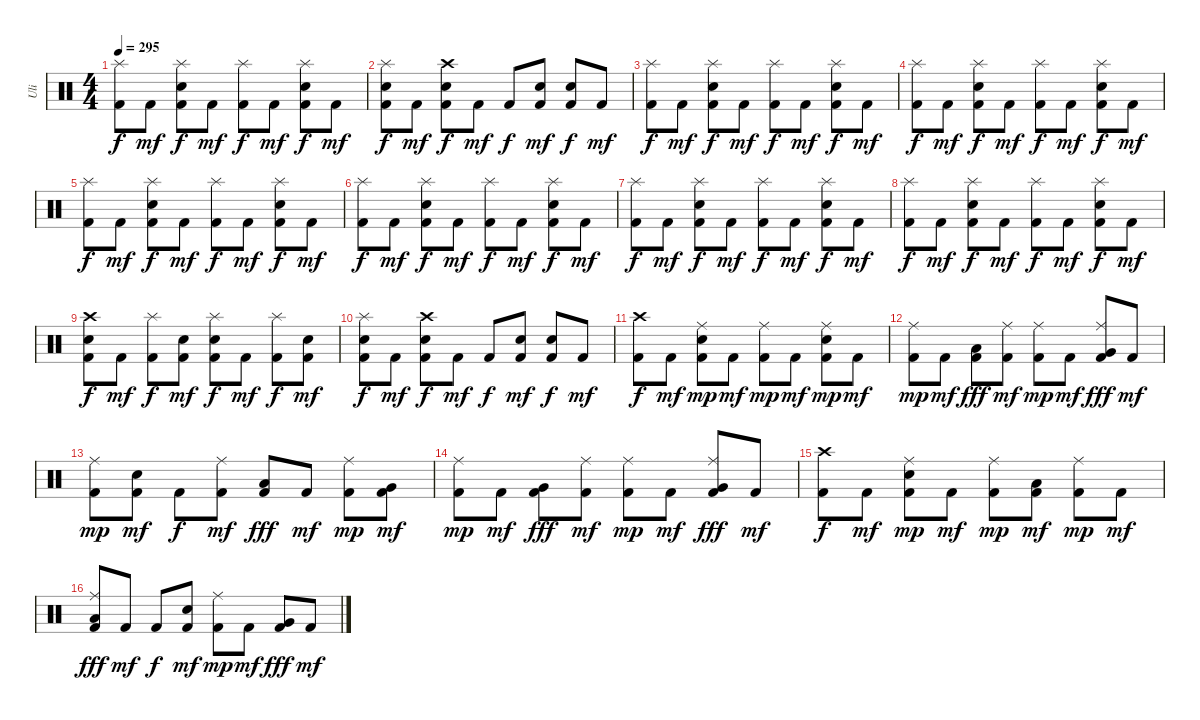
\track ("Uli" "Uli") {instrument percussion}
\staff {score}
\articulation defaults
\ts (4 4)
\tempo 295
\clef neutral
\ks c
("Splash (hit)" "Kick (hit) 2").8{dy f} "Kick (hit) 2".8{dy mf volume 16} ("Splash (hit)" "Electric Snare (hit)" "Kick (hit) 2").8{dy f} "Kick (hit) 2".8{dy mf} ("Splash (hit)" "Kick (hit) 2").8{dy f} "Kick (hit) 2".8{dy mf} ("Splash (hit)" "Electric Snare (hit)" "Kick (hit) 2").8{dy f} "Kick (hit) 2".8{dy mf} |
("Splash (hit)" "Electric Snare (hit)" "Kick (hit) 2").8{dy f} "Kick (hit) 2".8{dy mf volume 16} ("Crash high (hit)" "Electric Snare (hit)" "Kick (hit) 2").8{dy f} "Kick (hit) 2".8{dy mf} "Kick (hit) 2".8{dy f} ("Electric Snare (hit)" "Kick (hit) 2").8{dy mf} ("Electric Snare (hit)" "Kick (hit) 2").8{dy f} "Kick (hit) 2".8{dy mf} |
("Splash (hit)" "Kick (hit) 2").8{dy f} "Kick (hit) 2".8{dy mf volume 16} ("Splash (hit)" "Electric Snare (hit)" "Kick (hit) 2").8{dy f} "Kick (hit) 2".8{dy mf} ("Splash (hit)" "Kick (hit) 2").8{dy f} "Kick (hit) 2".8{dy mf} ("Splash (hit)" "Electric Snare (hit)" "Kick (hit) 2").8{dy f} "Kick (hit) 2".8{dy mf} |
("Splash (hit)" "Kick (hit) 2").8{dy f} "Kick (hit) 2".8{dy mf volume 16} ("Splash (hit)" "Electric Snare (hit)" "Kick (hit) 2").8{dy f} "Kick (hit) 2".8{dy mf} ("Splash (hit)" "Kick (hit) 2").8{dy f} "Kick (hit) 2".8{dy mf} ("Splash (hit)" "Electric Snare (hit)" "Kick (hit) 2").8{dy f} "Kick (hit) 2".8{dy mf} |
("Splash (hit)" "Kick (hit) 2").8{dy f} "Kick (hit) 2".8{dy mf volume 16} ("Splash (hit)" "Electric Snare (hit)" "Kick (hit) 2").8{dy f} "Kick (hit) 2".8{dy mf} ("Splash (hit)" "Kick (hit) 2").8{dy f} "Kick (hit) 2".8{dy mf} ("Splash (hit)" "Electric Snare (hit)" "Kick (hit) 2").8{dy f} "Kick (hit) 2".8{dy mf} |
("Splash (hit)" "Kick (hit) 2").8{dy f} "Kick (hit) 2".8{dy mf volume 16} ("Splash (hit)" "Electric Snare (hit)" "Kick (hit) 2").8{dy f} "Kick (hit) 2".8{dy mf} ("Splash (hit)" "Kick (hit) 2").8{dy f} "Kick (hit) 2".8{dy mf} ("Splash (hit)" "Electric Snare (hit)" "Kick (hit) 2").8{dy f} "Kick (hit) 2".8{dy mf} |
("Splash (hit)" "Kick (hit) 2").8{dy f} "Kick (hit) 2".8{dy mf volume 16} ("Splash (hit)" "Electric Snare (hit)" "Kick (hit) 2").8{dy f} "Kick (hit) 2".8{dy mf} ("Splash (hit)" "Kick (hit) 2").8{dy f} "Kick (hit) 2".8{dy mf} ("Splash (hit)" "Electric Snare (hit)" "Kick (hit) 2").8{dy f} "Kick (hit) 2".8{dy mf} |
("Splash (hit)" "Kick (hit) 2").8{dy f} "Kick (hit) 2".8{dy mf volume 16} ("Splash (hit)" "Electric Snare (hit)" "Kick (hit) 2").8{dy f} "Kick (hit) 2".8{dy mf} ("Splash (hit)" "Kick (hit) 2").8{dy f} "Kick (hit) 2".8{dy mf} ("Splash (hit)" "Electric Snare (hit)" "Kick (hit) 2").8{dy f} "Kick (hit) 2".8{dy mf} |
("Crash high (hit)" "Electric Snare (hit)" "Kick (hit) 2").8{dy f} "Kick (hit) 2".8{dy mf volume 16} ("Splash (hit)" "Kick (hit) 2").8{dy f} ("Electric Snare (hit)" "Kick (hit) 2").8{dy mf} ("Splash (hit)" "Electric Snare (hit)" "Kick (hit) 2").8{dy f} "Kick (hit) 2".8{dy mf} ("Splash (hit)" "Kick (hit) 2").8{dy f} ("Electric Snare (hit)" "Kick (hit) 2").8{dy mf} |
("Splash (hit)" "Electric Snare (hit)" "Kick (hit) 2").8{dy f} "Kick (hit) 2".8{dy mf volume 16} ("Crash high (hit)" "Electric Snare (hit)" "Kick (hit) 2").8{dy f} "Kick (hit) 2".8{dy mf} "Kick (hit) 2".8{dy f} ("Electric Snare (hit)" "Kick (hit) 2").8{dy mf} ("Electric Snare (hit)" "Kick (hit) 2").8{dy f} "Kick (hit) 2".8{dy mf} |
("Crash high (hit)" "Kick (hit) 2").8{dy f} "Kick (hit) 2".8{dy mf volume 16} ("Ride (middle)" "Electric Snare (hit)" "Kick (hit) 2").8{dy mp} "Kick (hit) 2".8{dy mf} ("Ride (middle)" "Kick (hit) 2").8{dy mp} "Kick (hit) 2".8{dy mf} ("Ride (middle)" "Electric Snare (hit)" "Kick (hit) 2").8{dy mp} "Kick (hit) 2".8{dy mf} |
("Ride (middle)" "Kick (hit) 2").8{dy mp} "Kick (hit) 2".8{dy mf volume 16} ("Low Tom (hit)" "Kick (hit) 2").8{dy fff} ("Ride (middle)" "Kick (hit) 2").8{dy mf} ("Ride (middle)" "Kick (hit) 2").8{dy mp} "Kick (hit) 2".8{dy mf} ("Ride (middle)" "Very Low Tom (hit)" "Kick (hit) 2").8{dy fff} "Kick (hit) 2".8{dy mf} |
("Ride (middle)" "Kick (hit) 2").8{dy mp} ("Electric Snare (hit)" "Kick (hit) 2").8{dy mf volume 16} "Kick (hit) 2".8{dy f} ("Ride (middle)" "Kick (hit) 2").8{dy mf} ("Low Tom (hit)" "Kick (hit) 2").8{dy fff} "Kick (hit) 2".8{dy mf} ("Ride (middle)" "Kick (hit) 2").8{dy mp} ("Very Low Tom (hit)" "Kick (hit) 2").8{dy mf} |
("Ride (middle)" "Kick (hit) 2").8{dy mp} "Kick (hit) 2".8{dy mf volume 16} ("Very Low Tom (hit)" "Kick (hit) 2").8{dy fff} ("Ride (middle)" "Kick (hit) 2").8{dy mf} ("Ride (middle)" "Kick (hit) 2").8{dy mp} "Kick (hit) 2".8{dy mf} ("Ride (middle)" "Very Low Tom (hit)" "Kick (hit) 2").8{dy fff} "Kick (hit) 2".8{dy mf} |
("Crash high (hit)" "Kick (hit) 2").8{dy f} "Kick (hit) 2".8{dy mf volume 16} ("Ride (middle)" "Electric Snare (hit)" "Kick (hit) 2").8{dy mp} "Kick (hit) 2".8{dy mf} ("Ride (middle)" "Kick (hit) 2").8{dy mp} ("Low Tom (hit)" "Kick (hit) 2").8{dy mf} ("Ride (middle)" "Kick (hit) 2").8{dy mp} "Kick (hit) 2".8{dy mf} |
("Ride (middle)" "Low Tom (hit)" "Kick (hit) 2").8{dy fff} "Kick (hit) 2".8{dy mf volume 16} "Kick (hit) 2".8{dy f} ("Electric Snare (hit)" "Kick (hit) 2").8{dy mf} ("Ride (middle)" "Kick (hit) 2").8{dy mp} "Kick (hit) 2".8{dy mf} ("Very Low Tom (hit)" "Kick (hit) 2").8{dy fff} "Kick (hit) 2".8{dy mf}
